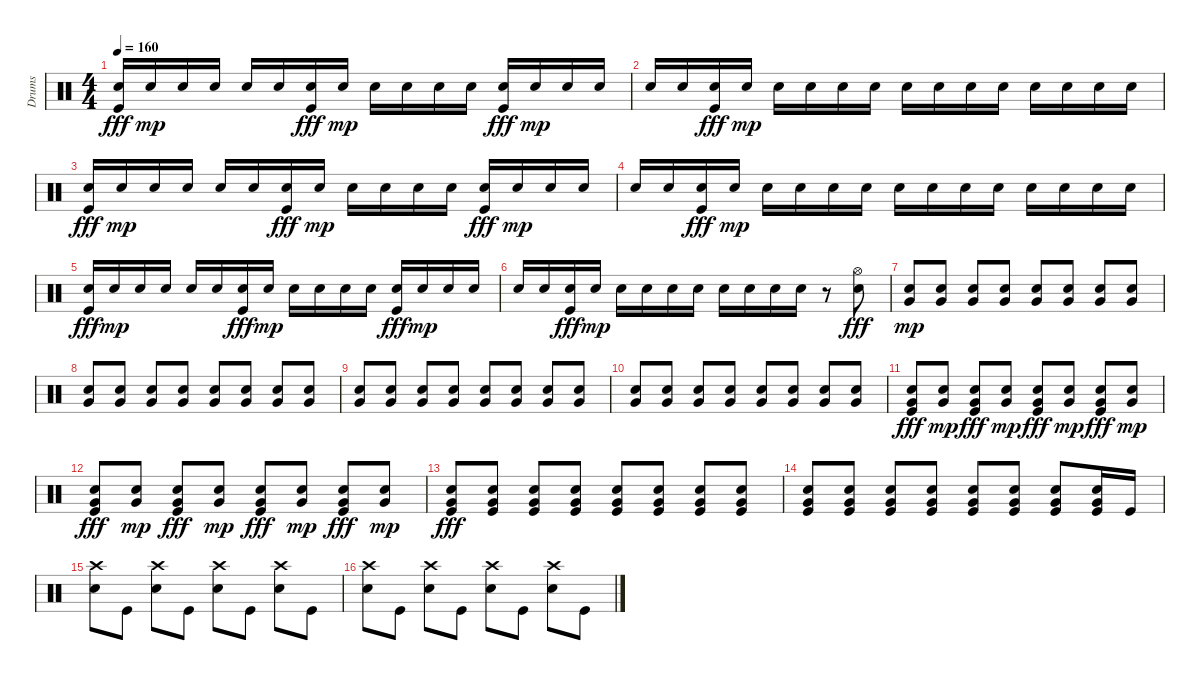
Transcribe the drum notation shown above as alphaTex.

\track ("Drums" "Drums") {instrument percussion}
\staff {score}
\articulation defaults
\ts (4 4)
\tempo 160
\clef neutral
\ks c
("Snare (hit) 2" "Kick (hit)").16{dy fff} "Snare (hit) 2".16{dy mp} "Snare (hit) 2".16 "Snare (hit) 2".16 "Snare (hit) 2".16 "Snare (hit) 2".16 ("Snare (hit) 2" "Kick (hit)").16{dy fff} "Snare (hit) 2".16{dy mp} "Snare (hit) 2".16 "Snare (hit) 2".16 "Snare (hit) 2".16 "Snare (hit) 2".16 ("Snare (hit) 2" "Kick (hit)").16{dy fff} "Snare (hit) 2".16{dy mp} "Snare (hit) 2".16 "Snare (hit) 2".16 |
"Snare (hit) 2".16 "Snare (hit) 2".16 ("Snare (hit) 2" "Kick (hit)").16{dy fff} "Snare (hit) 2".16{dy mp} "Snare (hit) 2".16 "Snare (hit) 2".16 "Snare (hit) 2".16 "Snare (hit) 2".16 "Snare (hit) 2".16 "Snare (hit) 2".16 "Snare (hit) 2".16 "Snare (hit) 2".16 "Snare (hit) 2".16 "Snare (hit) 2".16 "Snare (hit) 2".16 "Snare (hit) 2".16 |
("Snare (hit) 2" "Kick (hit)").16{dy fff} "Snare (hit) 2".16{dy mp} "Snare (hit) 2".16 "Snare (hit) 2".16 "Snare (hit) 2".16 "Snare (hit) 2".16 ("Snare (hit) 2" "Kick (hit)").16{dy fff} "Snare (hit) 2".16{dy mp} "Snare (hit) 2".16 "Snare (hit) 2".16 "Snare (hit) 2".16 "Snare (hit) 2".16 ("Snare (hit) 2" "Kick (hit)").16{dy fff} "Snare (hit) 2".16{dy mp} "Snare (hit) 2".16 "Snare (hit) 2".16 |
"Snare (hit) 2".16 "Snare (hit) 2".16 ("Snare (hit) 2" "Kick (hit)").16{dy fff} "Snare (hit) 2".16{dy mp} "Snare (hit) 2".16 "Snare (hit) 2".16 "Snare (hit) 2".16 "Snare (hit) 2".16 "Snare (hit) 2".16 "Snare (hit) 2".16 "Snare (hit) 2".16 "Snare (hit) 2".16 "Snare (hit) 2".16 "Snare (hit) 2".16 "Snare (hit) 2".16 "Snare (hit) 2".16 |
("Snare (hit) 2" "Kick (hit)").16{dy fff} "Snare (hit) 2".16{dy mp} "Snare (hit) 2".16 "Snare (hit) 2".16 "Snare (hit) 2".16 "Snare (hit) 2".16 ("Snare (hit) 2" "Kick (hit)").16{dy fff} "Snare (hit) 2".16{dy mp} "Snare (hit) 2".16 "Snare (hit) 2".16 "Snare (hit) 2".16 "Snare (hit) 2".16 ("Snare (hit) 2" "Kick (hit)").16{dy fff} "Snare (hit) 2".16{dy mp} "Snare (hit) 2".16 "Snare (hit) 2".16 |
"Snare (hit) 2".16 "Snare (hit) 2".16 ("Snare (hit) 2" "Kick (hit)").16{dy fff} "Snare (hit) 2".16{dy mp} "Snare (hit) 2".16 "Snare (hit) 2".16 "Snare (hit) 2".16 "Snare (hit) 2".16 "Snare (hit) 2".16 "Snare (hit) 2".16 "Snare (hit) 2".16 "Snare (hit) 2".16 r.8 ("Hi-Hat (open)" "Snare (hit) 2").8{dy fff} |
("Snare (hit) 2" "Very Low Tom (hit)").8{dy mp} ("Snare (hit) 2" "Very Low Tom (hit)").8 ("Snare (hit) 2" "Very Low Tom (hit)").8 ("Snare (hit) 2" "Very Low Tom (hit)").8 ("Snare (hit) 2" "Very Low Tom (hit)").8 ("Snare (hit) 2" "Very Low Tom (hit)").8 ("Snare (hit) 2" "Very Low Tom (hit)").8 ("Snare (hit) 2" "Very Low Tom (hit)").8 |
("Snare (hit) 2" "Very Low Tom (hit)").8 ("Snare (hit) 2" "Very Low Tom (hit)").8 ("Snare (hit) 2" "Very Low Tom (hit)").8 ("Snare (hit) 2" "Very Low Tom (hit)").8 ("Snare (hit) 2" "Very Low Tom (hit)").8 ("Snare (hit) 2" "Very Low Tom (hit)").8 ("Snare (hit) 2" "Very Low Tom (hit)").8 ("Snare (hit) 2" "Very Low Tom (hit)").8 |
("Snare (hit) 2" "Very Low Tom (hit)").8 ("Snare (hit) 2" "Very Low Tom (hit)").8 ("Snare (hit) 2" "Very Low Tom (hit)").8 ("Snare (hit) 2" "Very Low Tom (hit)").8 ("Snare (hit) 2" "Very Low Tom (hit)").8 ("Snare (hit) 2" "Very Low Tom (hit)").8 ("Snare (hit) 2" "Very Low Tom (hit)").8 ("Snare (hit) 2" "Very Low Tom (hit)").8 |
("Snare (hit) 2" "Very Low Tom (hit)").8 ("Snare (hit) 2" "Very Low Tom (hit)").8 ("Snare (hit) 2" "Very Low Tom (hit)").8 ("Snare (hit) 2" "Very Low Tom (hit)").8 ("Snare (hit) 2" "Very Low Tom (hit)").8 ("Snare (hit) 2" "Very Low Tom (hit)").8 ("Snare (hit) 2" "Very Low Tom (hit)").8 ("Snare (hit) 2" "Very Low Tom (hit)").8 |
("Snare (hit) 2" "Very Low Tom (hit)" "Kick (hit)").8{dy fff} ("Snare (hit) 2" "Very Low Tom (hit)").8{dy mp} ("Snare (hit) 2" "Very Low Tom (hit)" "Kick (hit)").8{dy fff} ("Snare (hit) 2" "Very Low Tom (hit)").8{dy mp} ("Snare (hit) 2" "Very Low Tom (hit)" "Kick (hit)").8{dy fff} ("Snare (hit) 2" "Very Low Tom (hit)").8{dy mp} ("Snare (hit) 2" "Very Low Tom (hit)" "Kick (hit)").8{dy fff} ("Snare (hit) 2" "Very Low Tom (hit)").8{dy mp} |
("Snare (hit) 2" "Very Low Tom (hit)" "Kick (hit)").8{dy fff} ("Snare (hit) 2" "Very Low Tom (hit)").8{dy mp} ("Snare (hit) 2" "Very Low Tom (hit)" "Kick (hit)").8{dy fff} ("Snare (hit) 2" "Very Low Tom (hit)").8{dy mp} ("Snare (hit) 2" "Very Low Tom (hit)" "Kick (hit)").8{dy fff} ("Snare (hit) 2" "Very Low Tom (hit)").8{dy mp} ("Snare (hit) 2" "Very Low Tom (hit)" "Kick (hit)").8{dy fff} ("Snare (hit) 2" "Very Low Tom (hit)").8{dy mp} |
("Snare (hit) 2" "Very Low Tom (hit)" "Kick (hit)").8{dy fff} ("Snare (hit) 2" "Very Low Tom (hit)" "Kick (hit)").8 ("Snare (hit) 2" "Very Low Tom (hit)" "Kick (hit)").8 ("Snare (hit) 2" "Very Low Tom (hit)" "Kick (hit)").8 ("Snare (hit) 2" "Very Low Tom (hit)" "Kick (hit)").8 ("Snare (hit) 2" "Very Low Tom (hit)" "Kick (hit)").8 ("Snare (hit) 2" "Very Low Tom (hit)" "Kick (hit)").8 ("Snare (hit) 2" "Very Low Tom (hit)" "Kick (hit)").8 |
("Snare (hit) 2" "Very Low Tom (hit)" "Kick (hit)").8 ("Snare (hit) 2" "Very Low Tom (hit)" "Kick (hit)").8 ("Snare (hit) 2" "Very Low Tom (hit)" "Kick (hit)").8 ("Snare (hit) 2" "Very Low Tom (hit)" "Kick (hit)").8 ("Snare (hit) 2" "Very Low Tom (hit)" "Kick (hit)").8 ("Snare (hit) 2" "Very Low Tom (hit)" "Kick (hit)").8 ("Snare (hit) 2" "Very Low Tom (hit)" "Kick (hit)").8 ("Snare (hit) 2" "Very Low Tom (hit)" "Kick (hit)").16 "Kick (hit)".16 |
("Crash high (hit)" "Snare (hit) 2").8 "Kick (hit)".8 ("Crash high (hit)" "Snare (hit) 2").8 "Kick (hit)".8 ("Crash high (hit)" "Snare (hit) 2").8 "Kick (hit)".8 ("Crash high (hit)" "Snare (hit) 2").8 "Kick (hit)".8 |
("Crash high (hit)" "Snare (hit) 2").8 "Kick (hit)".8 ("Crash high (hit)" "Snare (hit) 2").8 "Kick (hit)".8 ("Crash high (hit)" "Snare (hit) 2").8 "Kick (hit)".8 ("Crash high (hit)" "Snare (hit) 2").8 "Kick (hit)".8
